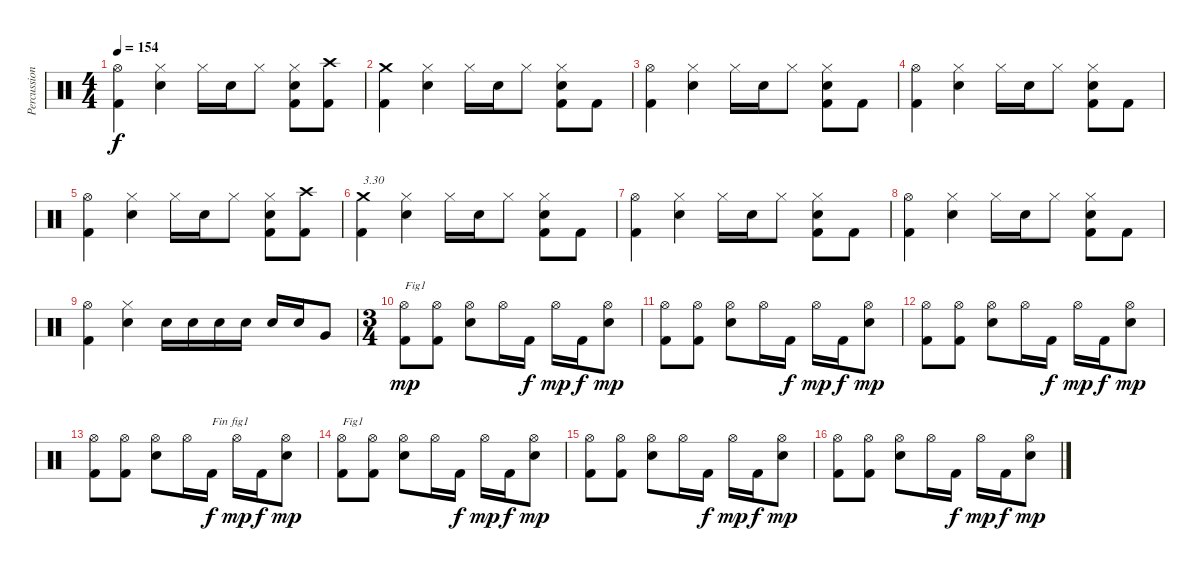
\track ("Percussions" "Percussion") {instrument percussion}
\staff {score}
\articulation defaults
\ts (4 4)
\tempo 154
\clef neutral
\ks c
("Kick (hit) 2" "Hi-Hat (open)").4{dy f} ("Electric Snare (hit)" "Hi-Hat (closed)").4 "Hi-Hat (closed)".16 "Electric Snare (hit)".16 "Hi-Hat (closed)".8 ("Kick (hit) 2" "Electric Snare (hit)" "Hi-Hat (closed)").8 ("Kick (hit) 2" "Crash high (hit)").8 |
("Kick (hit) 2" "Crash medium (hit)").4 ("Electric Snare (hit)" "Hi-Hat (closed)").4 "Hi-Hat (closed)".16 "Electric Snare (hit)".16 "Hi-Hat (closed)".8 ("Kick (hit) 2" "Electric Snare (hit)" "Hi-Hat (closed)").8 "Kick (hit) 2".8 |
("Kick (hit) 2" "Hi-Hat (open)").4 ("Electric Snare (hit)" "Hi-Hat (closed)").4 "Hi-Hat (closed)".16 "Electric Snare (hit)".16 "Hi-Hat (closed)".8 ("Kick (hit) 2" "Electric Snare (hit)" "Hi-Hat (closed)").8 "Kick (hit) 2".8 |
("Kick (hit) 2" "Hi-Hat (open)").4 ("Electric Snare (hit)" "Hi-Hat (closed)").4 "Hi-Hat (closed)".16 "Electric Snare (hit)".16 "Hi-Hat (closed)".8 ("Kick (hit) 2" "Electric Snare (hit)" "Hi-Hat (closed)").8 "Kick (hit) 2".8 |
("Kick (hit) 2" "Hi-Hat (open)").4 ("Electric Snare (hit)" "Hi-Hat (closed)").4 "Hi-Hat (closed)".16 "Electric Snare (hit)".16 "Hi-Hat (closed)".8 ("Kick (hit) 2" "Electric Snare (hit)" "Hi-Hat (closed)").8 ("Kick (hit) 2" "Crash high (hit)").8 |
("Kick (hit) 2" "Crash medium (hit)").4{txt "3.30"} ("Electric Snare (hit)" "Hi-Hat (closed)").4 "Hi-Hat (closed)".16 "Electric Snare (hit)".16 "Hi-Hat (closed)".8 ("Kick (hit) 2" "Electric Snare (hit)" "Hi-Hat (closed)").8 "Kick (hit) 2".8 |
("Kick (hit) 2" "Hi-Hat (open)").4 ("Electric Snare (hit)" "Hi-Hat (closed)").4 "Hi-Hat (closed)".16 "Electric Snare (hit)".16 "Hi-Hat (closed)".8 ("Kick (hit) 2" "Electric Snare (hit)" "Hi-Hat (closed)").8 "Kick (hit) 2".8 |
("Kick (hit) 2" "Hi-Hat (open)").4 ("Electric Snare (hit)" "Hi-Hat (closed)").4 "Hi-Hat (closed)".16 "Electric Snare (hit)".16 "Hi-Hat (closed)".8 ("Kick (hit) 2" "Electric Snare (hit)" "Hi-Hat (closed)").8 "Kick (hit) 2".8 |
("Kick (hit) 2" "Hi-Hat (open)").4 ("Electric Snare (hit)" "Hi-Hat (closed)").4 "Electric Snare (hit)".16 "Electric Snare (hit)".16 "Electric Snare (hit)".16 "Electric Snare (hit)".16 "Electric Snare (hit)".16 "Electric Snare (hit)".16 "Very Low Tom (hit)".8 |
\ts (3 4)
("Kick (hit) 2" "Hi-Hat (open)").8{txt "Fig1" dy mp} ("Kick (hit) 2" "Hi-Hat (open)").8 ("Electric Snare (hit)" "Hi-Hat (open)").8 "Hi-Hat (open)".16 "Kick (hit) 2".16{dy f} "Hi-Hat (open)".16{dy mp} "Kick (hit) 2".16{dy f} ("Electric Snare (hit)" "Hi-Hat (open)").8{dy mp} |
("Kick (hit) 2" "Hi-Hat (open)").8 ("Kick (hit) 2" "Hi-Hat (open)").8 ("Electric Snare (hit)" "Hi-Hat (open)").8 "Hi-Hat (open)".16 "Kick (hit) 2".16{dy f} "Hi-Hat (open)".16{dy mp} "Kick (hit) 2".16{dy f} ("Electric Snare (hit)" "Hi-Hat (open)").8{dy mp} |
("Kick (hit) 2" "Hi-Hat (open)").8 ("Kick (hit) 2" "Hi-Hat (open)").8 ("Electric Snare (hit)" "Hi-Hat (open)").8 "Hi-Hat (open)".16 "Kick (hit) 2".16{dy f} "Hi-Hat (open)".16{dy mp} "Kick (hit) 2".16{dy f} ("Electric Snare (hit)" "Hi-Hat (open)").8{dy mp} |
("Kick (hit) 2" "Hi-Hat (open)").8 ("Kick (hit) 2" "Hi-Hat (open)").8 ("Electric Snare (hit)" "Hi-Hat (open)").8 "Hi-Hat (open)".16 "Kick (hit) 2".16{txt "Fin fig1" dy f} "Hi-Hat (open)".16{dy mp} "Kick (hit) 2".16{dy f} ("Electric Snare (hit)" "Hi-Hat (open)").8{dy mp} |
("Kick (hit) 2" "Hi-Hat (open)").8{txt "Fig1"} ("Kick (hit) 2" "Hi-Hat (open)").8 ("Electric Snare (hit)" "Hi-Hat (open)").8 "Hi-Hat (open)".16 "Kick (hit) 2".16{dy f} "Hi-Hat (open)".16{dy mp} "Kick (hit) 2".16{dy f} ("Electric Snare (hit)" "Hi-Hat (open)").8{dy mp} |
("Kick (hit) 2" "Hi-Hat (open)").8 ("Kick (hit) 2" "Hi-Hat (open)").8 ("Electric Snare (hit)" "Hi-Hat (open)").8 "Hi-Hat (open)".16 "Kick (hit) 2".16{dy f} "Hi-Hat (open)".16{dy mp} "Kick (hit) 2".16{dy f} ("Electric Snare (hit)" "Hi-Hat (open)").8{dy mp} |
("Kick (hit) 2" "Hi-Hat (open)").8 ("Kick (hit) 2" "Hi-Hat (open)").8 ("Electric Snare (hit)" "Hi-Hat (open)").8 "Hi-Hat (open)".16 "Kick (hit) 2".16{dy f} "Hi-Hat (open)".16{dy mp} "Kick (hit) 2".16{dy f} ("Electric Snare (hit)" "Hi-Hat (open)").8{dy mp}
